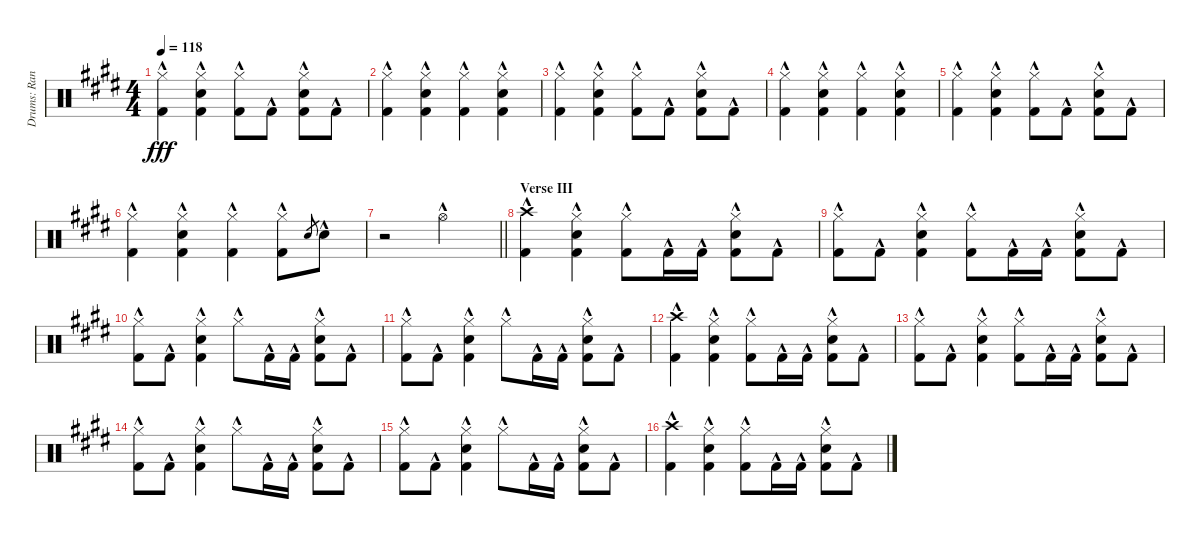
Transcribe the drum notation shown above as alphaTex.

\track ("Drums: Randy" "Drums: Ran") {instrument percussion}
\staff {score}
\articulation defaults
\ts (4 4)
\tempo 118
\clef neutral
\ks e
("Hi-Hat (closed)"{hac} "Kick (hit) 2"{hac}).4{dy fff} ("Hi-Hat (closed)"{hac} "Snare (hit) 2"{hac} "Kick (hit) 2"{hac}).4 ("Hi-Hat (closed)"{hac} "Kick (hit) 2"{hac}).8 "Kick (hit) 2"{hac}.8 ("Hi-Hat (closed)"{hac} "Snare (hit) 2"{hac} "Kick (hit) 2"{hac}).8 "Kick (hit) 2"{hac}.8 |
("Hi-Hat (closed)"{hac} "Kick (hit) 2"{hac}).4 ("Hi-Hat (closed)"{hac} "Snare (hit) 2"{hac} "Kick (hit) 2"{hac}).4 ("Hi-Hat (closed)"{hac} "Kick (hit) 2"{hac}).4 ("Hi-Hat (closed)"{hac} "Snare (hit) 2"{hac} "Kick (hit) 2"{hac}).4 |
("Hi-Hat (closed)"{hac} "Kick (hit) 2"{hac}).4 ("Hi-Hat (closed)"{hac} "Snare (hit) 2"{hac} "Kick (hit) 2"{hac}).4 ("Hi-Hat (closed)"{hac} "Kick (hit) 2"{hac}).8 "Kick (hit) 2"{hac}.8 ("Hi-Hat (closed)"{hac} "Snare (hit) 2"{hac} "Kick (hit) 2"{hac}).8 "Kick (hit) 2"{hac}.8 |
("Hi-Hat (closed)"{hac} "Kick (hit) 2"{hac}).4 ("Hi-Hat (closed)"{hac} "Snare (hit) 2"{hac} "Kick (hit) 2"{hac}).4 ("Hi-Hat (closed)"{hac} "Kick (hit) 2"{hac}).4 ("Hi-Hat (closed)"{hac} "Snare (hit) 2"{hac} "Kick (hit) 2"{hac}).4 |
("Hi-Hat (closed)"{hac} "Kick (hit) 2"{hac}).4 ("Hi-Hat (closed)"{hac} "Snare (hit) 2"{hac} "Kick (hit) 2"{hac}).4 ("Hi-Hat (closed)"{hac} "Kick (hit) 2"{hac}).8 "Kick (hit) 2"{hac}.8 ("Hi-Hat (closed)"{hac} "Snare (hit) 2"{hac} "Kick (hit) 2"{hac}).8 "Kick (hit) 2"{hac}.8 |
("Hi-Hat (closed)"{hac} "Kick (hit) 2"{hac}).4 ("Hi-Hat (closed)"{hac} "Snare (hit) 2"{hac} "Kick (hit) 2"{hac}).4 ("Hi-Hat (closed)"{hac} "Kick (hit) 2"{hac}).4 ("Hi-Hat (closed)"{hac} "Kick (hit) 2"{hac}).8 "Snare (hit) 2".8{gr} "Snare (hit) 2"{hac}.8 |
\barLineRight lightlight
r.2 "Hi-Hat (open)"{hac}.2 |
\section ("" "Verse III")
("Crash high (hit)"{hac} "Kick (hit) 2"{hac}).4 ("Hi-Hat (closed)"{hac} "Snare (hit) 2"{hac} "Kick (hit) 2"{hac}).4 ("Hi-Hat (closed)"{hac} "Kick (hit) 2"{hac}).8 "Kick (hit) 2"{hac}.16 "Kick (hit) 2"{hac}.16 ("Hi-Hat (closed)"{hac} "Snare (hit) 2"{hac} "Kick (hit) 2"{hac}).8 "Kick (hit) 2"{hac}.8 |
("Hi-Hat (closed)"{hac} "Kick (hit) 2"{hac}).8 "Kick (hit) 2"{hac}.8 ("Hi-Hat (closed)"{hac} "Snare (hit) 2"{hac} "Kick (hit) 2"{hac}).4 ("Hi-Hat (closed)"{hac} "Kick (hit) 2"{hac}).8 "Kick (hit) 2"{hac}.16 "Kick (hit) 2"{hac}.16 ("Hi-Hat (closed)"{hac} "Snare (hit) 2"{hac} "Kick (hit) 2"{hac}).8 "Kick (hit) 2"{hac}.8 |
("Hi-Hat (closed)"{hac} "Kick (hit) 2"{hac}).8 "Kick (hit) 2"{hac}.8 ("Hi-Hat (closed)"{hac} "Snare (hit) 2"{hac} "Kick (hit) 2"{hac}).4 "Hi-Hat (closed)"{hac}.8 "Kick (hit) 2"{hac}.16 "Kick (hit) 2"{hac}.16 ("Hi-Hat (closed)"{hac} "Snare (hit) 2"{hac} "Kick (hit) 2"{hac}).8 "Kick (hit) 2"{hac}.8 |
("Hi-Hat (closed)"{hac} "Kick (hit) 2"{hac}).8 "Kick (hit) 2"{hac}.8 ("Hi-Hat (closed)"{hac} "Snare (hit) 2"{hac} "Kick (hit) 2"{hac}).4 "Hi-Hat (closed)"{hac}.8 "Kick (hit) 2"{hac}.16 "Kick (hit) 2"{hac}.16 ("Hi-Hat (closed)"{hac} "Snare (hit) 2"{hac} "Kick (hit) 2"{hac}).8 "Kick (hit) 2"{hac}.8 |
("Crash high (hit)"{hac} "Kick (hit) 2"{hac}).4 ("Hi-Hat (closed)"{hac} "Snare (hit) 2"{hac} "Kick (hit) 2"{hac}).4 ("Hi-Hat (closed)"{hac} "Kick (hit) 2"{hac}).8 "Kick (hit) 2"{hac}.16 "Kick (hit) 2"{hac}.16 ("Hi-Hat (closed)"{hac} "Snare (hit) 2"{hac} "Kick (hit) 2"{hac}).8 "Kick (hit) 2"{hac}.8 |
("Hi-Hat (closed)"{hac} "Kick (hit) 2"{hac}).8 "Kick (hit) 2"{hac}.8 ("Hi-Hat (closed)"{hac} "Snare (hit) 2"{hac} "Kick (hit) 2"{hac}).4 ("Hi-Hat (closed)"{hac} "Kick (hit) 2"{hac}).8 "Kick (hit) 2"{hac}.16 "Kick (hit) 2"{hac}.16 ("Hi-Hat (closed)"{hac} "Snare (hit) 2"{hac} "Kick (hit) 2"{hac}).8 "Kick (hit) 2"{hac}.8 |
("Hi-Hat (closed)"{hac} "Kick (hit) 2"{hac}).8 "Kick (hit) 2"{hac}.8 ("Hi-Hat (closed)"{hac} "Snare (hit) 2"{hac} "Kick (hit) 2"{hac}).4 "Hi-Hat (closed)"{hac}.8 "Kick (hit) 2"{hac}.16 "Kick (hit) 2"{hac}.16 ("Hi-Hat (closed)"{hac} "Snare (hit) 2"{hac} "Kick (hit) 2"{hac}).8 "Kick (hit) 2"{hac}.8 |
("Hi-Hat (closed)"{hac} "Kick (hit) 2"{hac}).8 "Kick (hit) 2"{hac}.8 ("Hi-Hat (closed)"{hac} "Snare (hit) 2"{hac} "Kick (hit) 2"{hac}).4 "Hi-Hat (closed)"{hac}.8 "Kick (hit) 2"{hac}.16 "Kick (hit) 2"{hac}.16 ("Hi-Hat (closed)"{hac} "Snare (hit) 2"{hac} "Kick (hit) 2"{hac}).8 "Kick (hit) 2"{hac}.8 |
("Crash high (hit)"{hac} "Kick (hit) 2"{hac}).4 ("Hi-Hat (closed)"{hac} "Snare (hit) 2"{hac} "Kick (hit) 2"{hac}).4 ("Hi-Hat (closed)"{hac} "Kick (hit) 2"{hac}).8 "Kick (hit) 2"{hac}.16 "Kick (hit) 2"{hac}.16 ("Hi-Hat (closed)"{hac} "Snare (hit) 2"{hac} "Kick (hit) 2"{hac}).8 "Kick (hit) 2"{hac}.8
